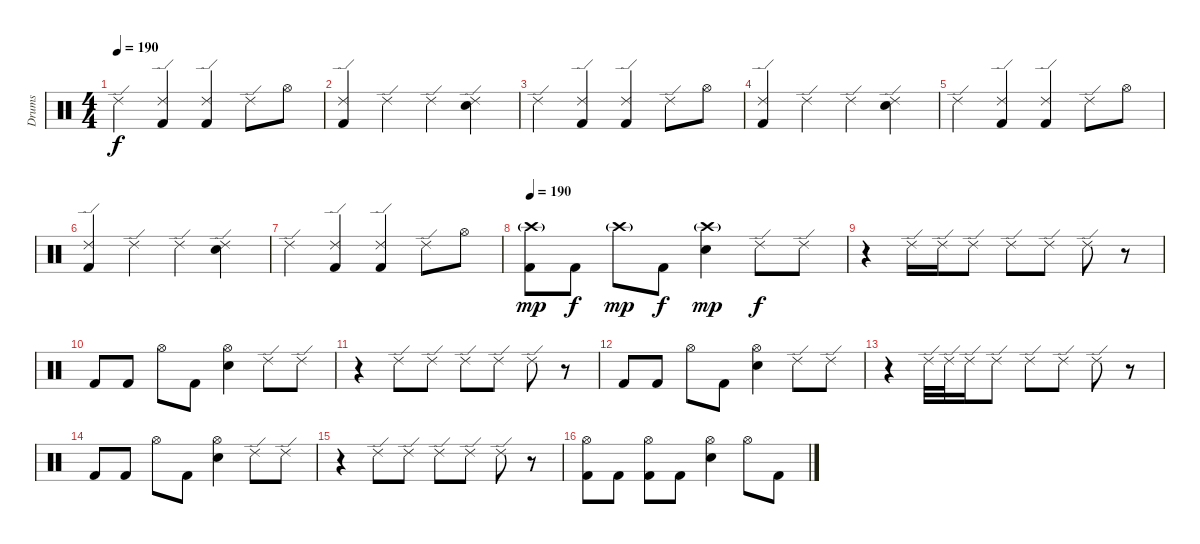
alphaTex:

\track ("Drums" "Drums") {instrument percussion}
\staff {score}
\articulation defaults
\ts (4 4)
\tempo 190
\clef neutral
\ks c "Ride (edge) 2".4{dy f}
("Ride (edge) 2" "Kick (hit) 2").4 ("Ride (edge) 2" "Kick (hit) 2").4 "Ride (edge) 2".8 "Hi-Hat (open)".8 |
("Ride (edge) 2" "Kick (hit) 2").4 "Ride (edge) 2".4 "Ride (edge) 2".4 ("Ride (edge) 2" "Snare (hit) 2").4 |
"Ride (edge) 2".4 ("Ride (edge) 2" "Kick (hit) 2").4 ("Ride (edge) 2" "Kick (hit) 2").4 "Ride (edge) 2".8 "Hi-Hat (open)".8 |
("Ride (edge) 2" "Kick (hit) 2").4 "Ride (edge) 2".4 "Ride (edge) 2".4 ("Ride (edge) 2" "Snare (hit) 2").4 |
"Ride (edge) 2".4 ("Ride (edge) 2" "Kick (hit) 2").4 ("Ride (edge) 2" "Kick (hit) 2").4 "Ride (edge) 2".8 "Hi-Hat (open)".8 |
("Ride (edge) 2" "Kick (hit) 2").4 "Ride (edge) 2".4 "Ride (edge) 2".4 ("Ride (edge) 2" "Snare (hit) 2").4 |
"Ride (edge) 2".4 ("Ride (edge) 2" "Kick (hit) 2").4 ("Ride (edge) 2" "Kick (hit) 2").4 "Ride (edge) 2".8 "Hi-Hat (open)".8 |
\tempo 190
("Crash high (hit)"{g} "Kick (hit) 2").8{dy mp} "Kick (hit) 2".8{dy f} "Crash high (hit)"{g}.8{dy mp} "Kick (hit) 2".8{dy f} ("Crash high (hit)"{g} "Snare (hit) 2").4{dy mp} "Ride (edge) 2".8{dy f} "Ride (edge) 2".8 |
r.4 "Ride (edge) 2".16 "Ride (edge) 2".16 "Ride (edge) 2".8 "Ride (edge) 2".8 "Ride (edge) 2".8 "Ride (edge) 2".8 r.8 |
"Kick (hit) 2".8 "Kick (hit) 2".8 "Hi-Hat (open)".8 "Kick (hit) 2".8 ("Hi-Hat (open)" "Snare (hit) 2").4 "Ride (edge) 2".8 "Ride (edge) 2".8 |
r.4 "Ride (edge) 2".8 "Ride (edge) 2".8 "Ride (edge) 2".8 "Ride (edge) 2".8 "Ride (edge) 2".8 r.8 |
"Kick (hit) 2".8 "Kick (hit) 2".8 "Hi-Hat (open)".8 "Kick (hit) 2".8 ("Hi-Hat (open)" "Snare (hit) 2").4 "Ride (edge) 2".8 "Ride (edge) 2".8 |
r.4 "Ride (edge) 2".32 "Ride (edge) 2".32 "Ride (edge) 2".16 "Ride (edge) 2".8 "Ride (edge) 2".8 "Ride (edge) 2".8 "Ride (edge) 2".8 r.8 |
"Kick (hit) 2".8 "Kick (hit) 2".8 "Hi-Hat (open)".8 "Kick (hit) 2".8 ("Hi-Hat (open)" "Snare (hit) 2").4 "Ride (edge) 2".8 "Ride (edge) 2".8 |
r.4 "Ride (edge) 2".8 "Ride (edge) 2".8 "Ride (edge) 2".8 "Ride (edge) 2".8 "Ride (edge) 2".8 r.8 |
("Hi-Hat (open)" "Kick (hit) 2").8 "Kick (hit) 2".8 ("Hi-Hat (open)" "Kick (hit) 2").8 "Kick (hit) 2".8 ("Hi-Hat (open)" "Snare (hit) 2").4 "Hi-Hat (open)".8 "Kick (hit) 2".8
